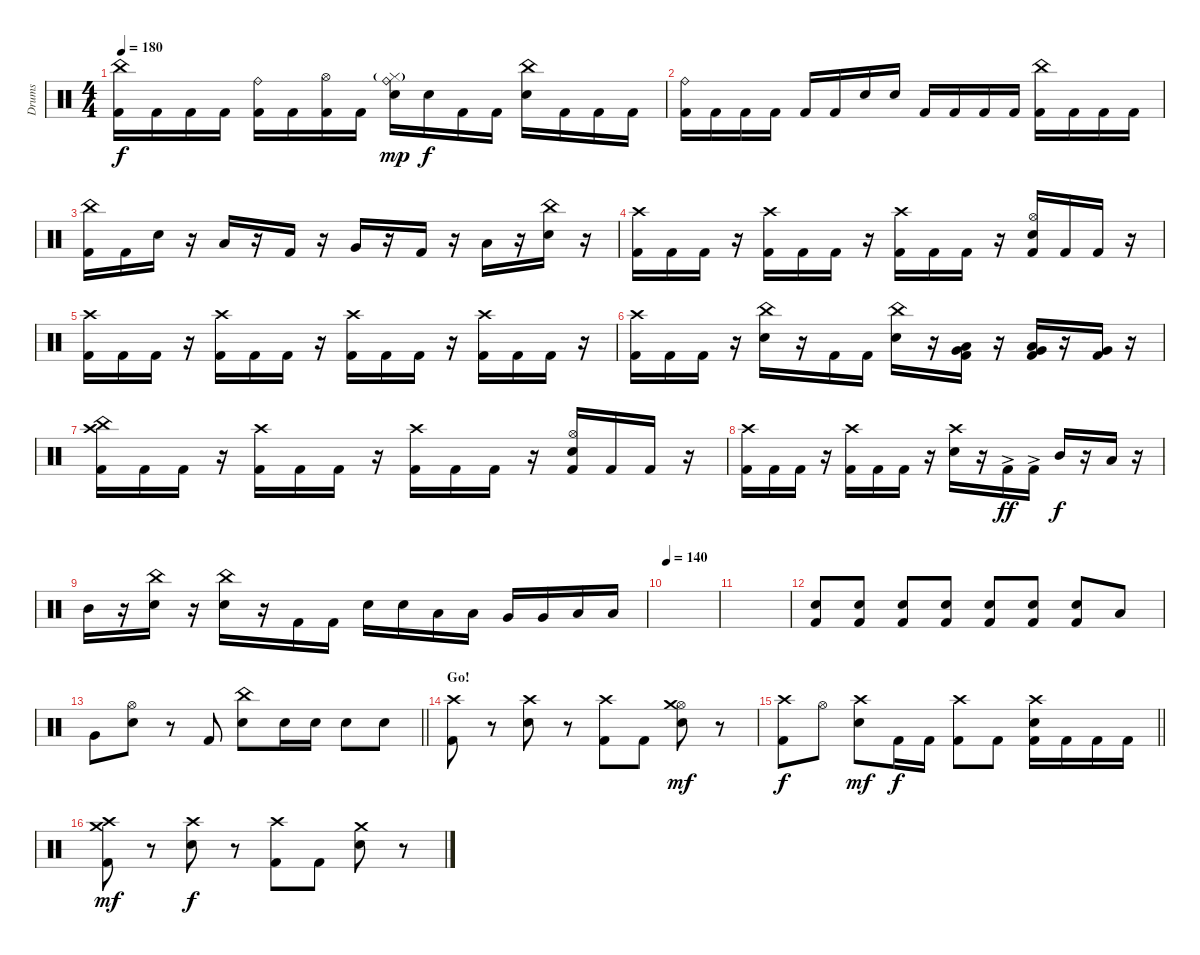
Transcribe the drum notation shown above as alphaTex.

\track ("Drums" "Drums") {instrument percussion}
\staff {score}
\articulation defaults
\ts (4 4)
\tempo 180
\clef neutral
\ks c
("China (hit)" "Kick (hit) 2").16{dy f} "Kick (hit) 2".16 "Kick (hit) 2".16 "Kick (hit) 2".16 ("Ride (bell)" "Kick (hit) 2").16 "Kick (hit) 2".16 ("Hi-Hat (open)" "Kick (hit) 2").16 "Kick (hit) 2".16 ("Hi-Hat (closed)"{g} "Ride (bell)" "Electric Snare (hit)").16{dy mp} "Electric Snare (hit)".16{dy f} "Kick (hit) 2".16 "Kick (hit) 2".16 ("China (hit)" "Electric Snare (hit)").16 "Kick (hit) 2".16 "Kick (hit) 2".16 "Kick (hit) 2".16 |
("Ride (bell)" "Kick (hit) 2").16 "Kick (hit) 2".16 "Kick (hit) 2".16 "Kick (hit) 2".16 "Kick (hit) 2".16 "Kick (hit) 2".16 "Electric Snare (hit)".16 "Electric Snare (hit)".16 "Kick (hit) 2".16 "Kick (hit) 2".16 "Kick (hit) 2".16 "Kick (hit) 2".16 ("China (hit)" "Kick (hit) 2").16 "Kick (hit) 2".16 "Kick (hit) 2".16 "Kick (hit) 2".16 |
("China (hit)" "Kick (hit) 2").16 "Kick (hit) 2".16 "Electric Snare (hit)".16 r.16 "Low Tom (hit)".16 r.16 "Kick (hit) 2".16 r.16 "Very Low Tom (hit)".16 r.16 "Kick (hit) 2".16 r.16 "Low Floor Tom (hit)".16 r.16 ("China (hit)" "Electric Snare (hit)").16 r.16 |
("Crash high (hit)" "Kick (hit) 2").16 "Kick (hit) 2".16 "Kick (hit) 2".16 r.16 ("Crash high (hit)" "Kick (hit) 2").16 "Kick (hit) 2".16 "Kick (hit) 2".16 r.16 ("Crash high (hit)" "Kick (hit) 2").16 "Kick (hit) 2".16 "Kick (hit) 2".16 r.16 ("Hi-Hat (open)" "Electric Snare (hit)" "Kick (hit) 2").16 "Kick (hit) 2".16 "Kick (hit) 2".16 r.16 |
("Crash high (hit)" "Kick (hit) 2").16 "Kick (hit) 2".16 "Kick (hit) 2".16 r.16 ("Crash high (hit)" "Kick (hit) 2").16 "Kick (hit) 2".16 "Kick (hit) 2".16 r.16 ("Crash high (hit)" "Kick (hit) 2").16 "Kick (hit) 2".16 "Kick (hit) 2".16 r.16 ("Crash high (hit)" "Kick (hit) 2").16 "Kick (hit) 2".16 "Kick (hit) 2".16 r.16 |
("Crash high (hit)" "Kick (hit) 2").16 "Kick (hit) 2".16 "Kick (hit) 2".16 r.16 ("China (hit)" "Electric Snare (hit)").16 r.16 "Kick (hit) 2".16 "Kick (hit) 2".16 ("China (hit)" "Electric Snare (hit)").16 r.16 ("Low Floor Tom (hit)" "Very Low Tom (hit)" "Kick (hit) 2").16 r.16 ("Low Floor Tom (hit)" "Very Low Tom (hit)" "Kick (hit) 2").16 r.16 ("Very Low Tom (hit)" "Kick (hit) 2").16 r.16 |
("China (hit)" "Crash high (hit)" "Kick (hit) 2").16 "Kick (hit) 2".16 "Kick (hit) 2".16 r.16 ("Crash high (hit)" "Kick (hit) 2").16 "Kick (hit) 2".16 "Kick (hit) 2".16 r.16 ("Crash high (hit)" "Kick (hit) 2").16 "Kick (hit) 2".16 "Kick (hit) 2".16 r.16 ("Hi-Hat (open)" "Electric Snare (hit)" "Kick (hit) 2").16 "Kick (hit) 2".16 "Kick (hit) 2".16 r.16 |
("Crash high (hit)" "Kick (hit) 2").16 "Kick (hit) 2".16 "Kick (hit) 2".16 r.16 ("Crash high (hit)" "Kick (hit) 2").16 "Kick (hit) 2".16 "Kick (hit) 2".16 r.16 ("Crash high (hit)" "Electric Snare (hit)").16 r.16 "Kick (hit) 2"{ac}.16{dy ff} "Kick (hit) 2"{ac}.16 "Mid Tom (hit)".16{dy f} r.16 "Low Tom (hit)".16 r.16 |
"Mid Tom (hit)".16 r.16 ("China (hit)" "Electric Snare (hit)").16 r.16 ("China (hit)" "Electric Snare (hit)").16 r.16 "Kick (hit) 2".16 "Kick (hit) 2".16 "Electric Snare (hit)".16 "Electric Snare (hit)".16 "Low Tom (hit)".16 "Low Tom (hit)".16 "Very Low Tom (hit)".16 "Very Low Tom (hit)".16 "Low Floor Tom (hit)".16 "Low Floor Tom (hit)".16 |
\tempo 140
|
|
("Electric Snare (hit)" "Kick (hit) 2").8 ("Electric Snare (hit)" "Kick (hit) 2").8 ("Electric Snare (hit)" "Kick (hit) 2").8 ("Electric Snare (hit)" "Kick (hit) 2").8 ("Electric Snare (hit)" "Kick (hit) 2").8 ("Electric Snare (hit)" "Kick (hit) 2").8 ("Electric Snare (hit)" "Kick (hit) 2").8 "Low Tom (hit)".8 |
\barLineRight lightlight "Very Low Tom (hit)".8
("Electric Snare (hit)" "Hi-Hat (open)").8 r.8 "Kick (hit) 2".8 ("Electric Snare (hit)" "China (hit)").8 "Electric Snare (hit)".16 "Electric Snare (hit)".16 "Electric Snare (hit)".8 "Electric Snare (hit)".8 |
\section ("" "Go!")
("Kick (hit) 2" "Crash high (hit)").8 r.8 ("Electric Snare (hit)" "Crash high (hit)").8 r.8 ("Kick (hit) 2" "Crash high (hit)").8 "Kick (hit) 2".8 ("Electric Snare (hit)" "Hi-Hat (open)" "Crash medium (hit)").8{dy mf} r.8 |
\barLineRight lightlight
("Kick (hit) 2" "Crash high (hit)").8{dy f} "Hi-Hat (open)".8 ("Electric Snare (hit)" "Crash high (hit)").8{dy mf} "Kick (hit) 2".16{dy f} "Kick (hit) 2".16 ("Kick (hit) 2" "Crash high (hit)").8 "Kick (hit) 2".8 ("Kick (hit) 2" "Electric Snare (hit)" "Crash high (hit)").16 "Kick (hit) 2".16 "Kick (hit) 2".16 "Kick (hit) 2".16 |
("Kick (hit) 2" "Crash high (hit)" "Crash medium (hit)").8{dy mf} r.8 ("Electric Snare (hit)" "Crash high (hit)").8{dy f} r.8 ("Kick (hit) 2" "Crash high (hit)").8 "Kick (hit) 2".8 ("Electric Snare (hit)" "Crash medium (hit)").8 r.8
